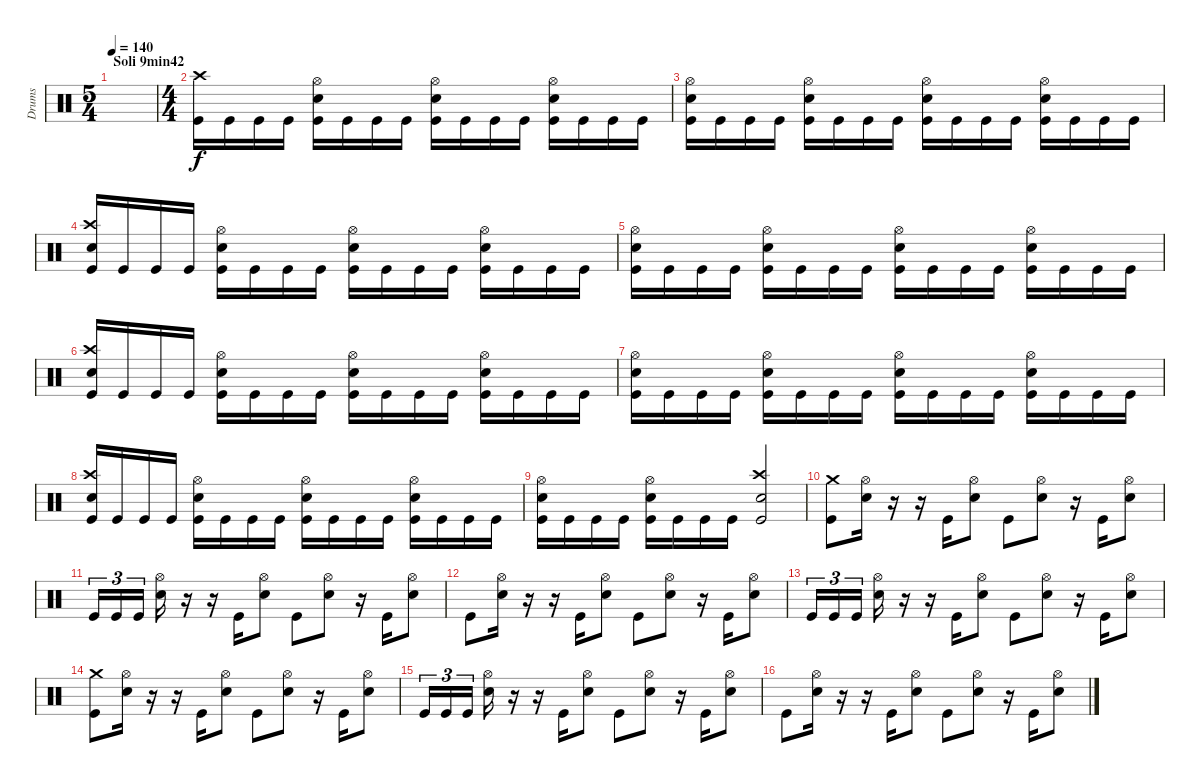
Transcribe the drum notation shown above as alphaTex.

\track ("Drums" "Drums") {instrument percussion}
\staff {score}
\articulation defaults
\ts (5 4)
\section ("" "Soli 9min42")
\tempo 140
\clef neutral
\ks c
|
\ts (4 4)
("Kick (hit)" "Crash high (hit)").16 "Kick (hit)".16 "Kick (hit)".16 "Kick (hit)".16 ("Kick (hit)" "Snare (hit) 2" "Hi-Hat (open)").16 "Kick (hit)".16 "Kick (hit)".16 "Kick (hit)".16 ("Kick (hit)" "Snare (hit) 2" "Hi-Hat (open)").16 "Kick (hit)".16 "Kick (hit)".16 "Kick (hit)".16 ("Kick (hit)" "Snare (hit) 2" "Hi-Hat (open)").16 "Kick (hit)".16 "Kick (hit)".16 "Kick (hit)".16 |
("Kick (hit)" "Snare (hit) 2" "Hi-Hat (open)").16 "Kick (hit)".16 "Kick (hit)".16 "Kick (hit)".16 ("Kick (hit)" "Snare (hit) 2" "Hi-Hat (open)").16 "Kick (hit)".16 "Kick (hit)".16 "Kick (hit)".16 ("Kick (hit)" "Snare (hit) 2" "Hi-Hat (open)").16 "Kick (hit)".16 "Kick (hit)".16 "Kick (hit)".16 ("Kick (hit)" "Snare (hit) 2" "Hi-Hat (open)").16 "Kick (hit)".16 "Kick (hit)".16 "Kick (hit)".16 |
("Kick (hit)" "Snare (hit) 2" "Crash high (hit)").16 "Kick (hit)".16 "Kick (hit)".16 "Kick (hit)".16 ("Kick (hit)" "Snare (hit) 2" "Hi-Hat (open)").16 "Kick (hit)".16 "Kick (hit)".16 "Kick (hit)".16 ("Kick (hit)" "Snare (hit) 2" "Hi-Hat (open)").16 "Kick (hit)".16 "Kick (hit)".16 "Kick (hit)".16 ("Kick (hit)" "Snare (hit) 2" "Hi-Hat (open)").16 "Kick (hit)".16 "Kick (hit)".16 "Kick (hit)".16 |
("Kick (hit)" "Snare (hit) 2" "Hi-Hat (open)").16 "Kick (hit)".16 "Kick (hit)".16 "Kick (hit)".16 ("Kick (hit)" "Snare (hit) 2" "Hi-Hat (open)").16 "Kick (hit)".16 "Kick (hit)".16 "Kick (hit)".16 ("Kick (hit)" "Snare (hit) 2" "Hi-Hat (open)").16 "Kick (hit)".16 "Kick (hit)".16 "Kick (hit)".16 ("Kick (hit)" "Snare (hit) 2" "Hi-Hat (open)").16 "Kick (hit)".16 "Kick (hit)".16 "Kick (hit)".16 |
("Kick (hit)" "Snare (hit) 2" "Crash high (hit)").16 "Kick (hit)".16 "Kick (hit)".16 "Kick (hit)".16 ("Kick (hit)" "Snare (hit) 2" "Hi-Hat (open)").16 "Kick (hit)".16 "Kick (hit)".16 "Kick (hit)".16 ("Kick (hit)" "Snare (hit) 2" "Hi-Hat (open)").16 "Kick (hit)".16 "Kick (hit)".16 "Kick (hit)".16 ("Kick (hit)" "Snare (hit) 2" "Hi-Hat (open)").16 "Kick (hit)".16 "Kick (hit)".16 "Kick (hit)".16 |
("Kick (hit)" "Snare (hit) 2" "Hi-Hat (open)").16 "Kick (hit)".16 "Kick (hit)".16 "Kick (hit)".16 ("Kick (hit)" "Snare (hit) 2" "Hi-Hat (open)").16 "Kick (hit)".16 "Kick (hit)".16 "Kick (hit)".16 ("Kick (hit)" "Snare (hit) 2" "Hi-Hat (open)").16 "Kick (hit)".16 "Kick (hit)".16 "Kick (hit)".16 ("Kick (hit)" "Snare (hit) 2" "Hi-Hat (open)").16 "Kick (hit)".16 "Kick (hit)".16 "Kick (hit)".16 |
("Kick (hit)" "Snare (hit) 2" "Crash high (hit)").16 "Kick (hit)".16 "Kick (hit)".16 "Kick (hit)".16 ("Kick (hit)" "Snare (hit) 2" "Hi-Hat (open)").16 "Kick (hit)".16 "Kick (hit)".16 "Kick (hit)".16 ("Kick (hit)" "Snare (hit) 2" "Hi-Hat (open)").16 "Kick (hit)".16 "Kick (hit)".16 "Kick (hit)".16 ("Kick (hit)" "Snare (hit) 2" "Hi-Hat (open)").16 "Kick (hit)".16 "Kick (hit)".16 "Kick (hit)".16 |
("Kick (hit)" "Snare (hit) 2" "Hi-Hat (open)").16 "Kick (hit)".16 "Kick (hit)".16 "Kick (hit)".16 ("Kick (hit)" "Snare (hit) 2" "Hi-Hat (open)").16 "Kick (hit)".16 "Kick (hit)".16 "Kick (hit)".16 ("Kick (hit)" "Snare (hit) 2" "Crash high (hit)").2 |
("Kick (hit)" "Crash medium (hit)").8 ("Snare (hit) 2" "Hi-Hat (open)").16 r.16 r.16 "Kick (hit)".16 ("Snare (hit) 2" "Hi-Hat (open)").8 "Kick (hit)".8 ("Snare (hit) 2" "Hi-Hat (open)").8 r.16 "Kick (hit)".16 ("Snare (hit) 2" "Hi-Hat (open)").8 |
"Kick (hit)".16{tu (3 2)} "Kick (hit)".16{tu (3 2)} "Kick (hit)".16{tu (3 2)} ("Snare (hit) 2" "Hi-Hat (open)").16 r.16 r.16 "Kick (hit)".16 ("Snare (hit) 2" "Hi-Hat (open)").8 "Kick (hit)".8 ("Snare (hit) 2" "Hi-Hat (open)").8 r.16 "Kick (hit)".16 ("Snare (hit) 2" "Hi-Hat (open)").8 |
"Kick (hit)".8 ("Snare (hit) 2" "Hi-Hat (open)").16 r.16 r.16 "Kick (hit)".16 ("Snare (hit) 2" "Hi-Hat (open)").8 "Kick (hit)".8 ("Snare (hit) 2" "Hi-Hat (open)").8 r.16 "Kick (hit)".16 ("Snare (hit) 2" "Hi-Hat (open)").8 |
"Kick (hit)".16{tu (3 2)} "Kick (hit)".16{tu (3 2)} "Kick (hit)".16{tu (3 2)} ("Snare (hit) 2" "Hi-Hat (open)").16 r.16 r.16 "Kick (hit)".16 ("Snare (hit) 2" "Hi-Hat (open)").8 "Kick (hit)".8 ("Snare (hit) 2" "Hi-Hat (open)").8 r.16 "Kick (hit)".16 ("Snare (hit) 2" "Hi-Hat (open)").8 |
("Kick (hit)" "Crash medium (hit)").8 ("Snare (hit) 2" "Hi-Hat (open)").16 r.16 r.16 "Kick (hit)".16 ("Snare (hit) 2" "Hi-Hat (open)").8 "Kick (hit)".8 ("Snare (hit) 2" "Hi-Hat (open)").8 r.16 "Kick (hit)".16 ("Snare (hit) 2" "Hi-Hat (open)").8 |
"Kick (hit)".16{tu (3 2)} "Kick (hit)".16{tu (3 2)} "Kick (hit)".16{tu (3 2)} ("Snare (hit) 2" "Hi-Hat (open)").16 r.16 r.16 "Kick (hit)".16 ("Snare (hit) 2" "Hi-Hat (open)").8 "Kick (hit)".8 ("Snare (hit) 2" "Hi-Hat (open)").8 r.16 "Kick (hit)".16 ("Snare (hit) 2" "Hi-Hat (open)").8 |
"Kick (hit)".8 ("Snare (hit) 2" "Hi-Hat (open)").16 r.16 r.16 "Kick (hit)".16 ("Snare (hit) 2" "Hi-Hat (open)").8 "Kick (hit)".8 ("Snare (hit) 2" "Hi-Hat (open)").8 r.16 "Kick (hit)".16 ("Snare (hit) 2" "Hi-Hat (open)").8
